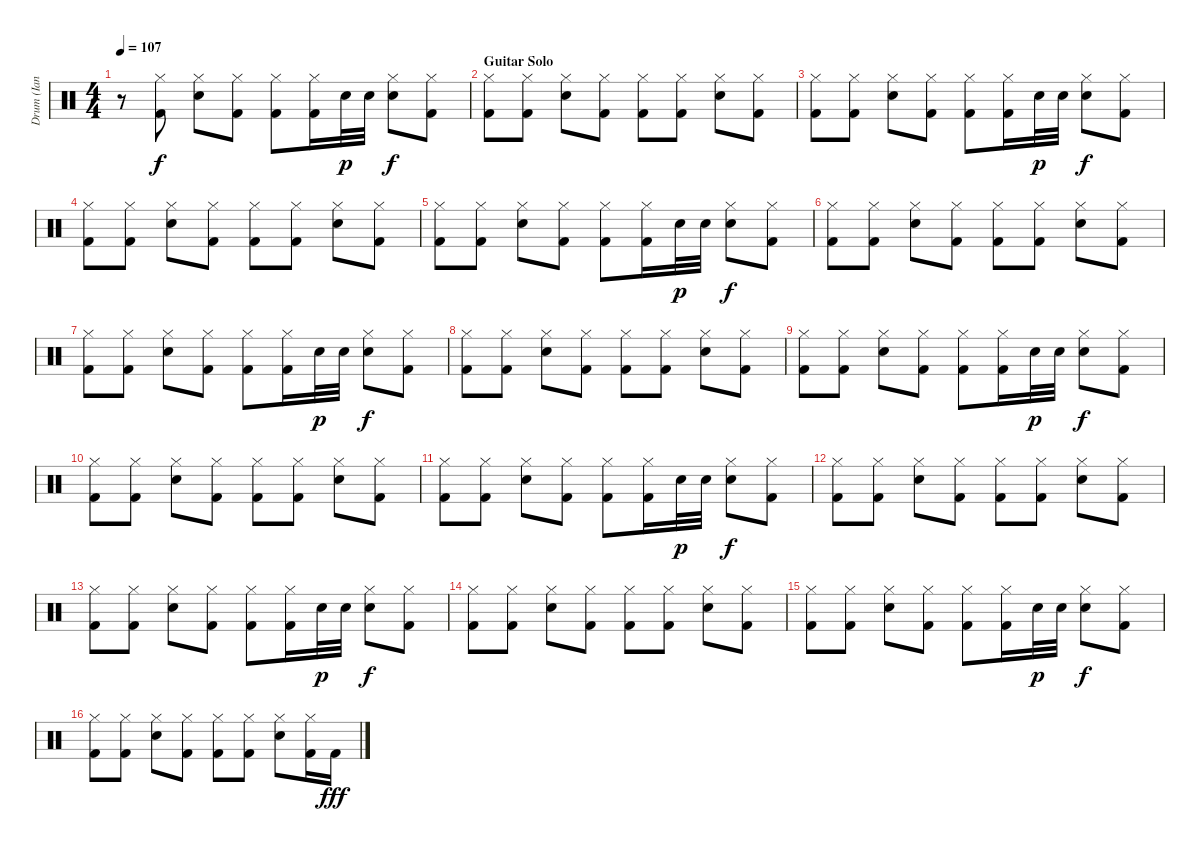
\track ("Drum (Ian Paice)" "Drum (Ian ") {instrument percussion}
\staff {score}
\articulation defaults
\ts (4 4)
\tempo 107
\clef neutral
\ks c
r.8{dy fff} ("Hi-Hat (closed)" "Kick (hit) 2").8{dy f} ("Hi-Hat (closed)" "Snare (hit) 2").8 ("Hi-Hat (closed)" "Kick (hit) 2").8 ("Hi-Hat (closed)" "Kick (hit) 2").8 ("Hi-Hat (closed)" "Kick (hit) 2").16 "Snare (hit) 2".32{dy p} "Snare (hit) 2".32 ("Hi-Hat (closed)" "Snare (hit) 2").8{dy f} ("Hi-Hat (closed)" "Kick (hit) 2").8 |
\section ("" "Guitar Solo")
("Hi-Hat (closed)" "Kick (hit) 2").8 ("Hi-Hat (closed)" "Kick (hit) 2").8 ("Hi-Hat (closed)" "Snare (hit) 2").8 ("Hi-Hat (closed)" "Kick (hit) 2").8 ("Hi-Hat (closed)" "Kick (hit) 2").8 ("Hi-Hat (closed)" "Kick (hit) 2").8 ("Hi-Hat (closed)" "Snare (hit) 2").8 ("Hi-Hat (closed)" "Kick (hit) 2").8 |
("Hi-Hat (closed)" "Kick (hit) 2").8 ("Hi-Hat (closed)" "Kick (hit) 2").8 ("Hi-Hat (closed)" "Snare (hit) 2").8 ("Hi-Hat (closed)" "Kick (hit) 2").8 ("Hi-Hat (closed)" "Kick (hit) 2").8 ("Hi-Hat (closed)" "Kick (hit) 2").16 "Snare (hit) 2".32{dy p} "Snare (hit) 2".32 ("Hi-Hat (closed)" "Snare (hit) 2").8{dy f} ("Hi-Hat (closed)" "Kick (hit) 2").8 |
("Hi-Hat (closed)" "Kick (hit) 2").8 ("Hi-Hat (closed)" "Kick (hit) 2").8 ("Hi-Hat (closed)" "Snare (hit) 2").8 ("Hi-Hat (closed)" "Kick (hit) 2").8 ("Hi-Hat (closed)" "Kick (hit) 2").8 ("Hi-Hat (closed)" "Kick (hit) 2").8 ("Hi-Hat (closed)" "Snare (hit) 2").8 ("Hi-Hat (closed)" "Kick (hit) 2").8 |
("Hi-Hat (closed)" "Kick (hit) 2").8 ("Hi-Hat (closed)" "Kick (hit) 2").8 ("Hi-Hat (closed)" "Snare (hit) 2").8 ("Hi-Hat (closed)" "Kick (hit) 2").8 ("Hi-Hat (closed)" "Kick (hit) 2").8 ("Hi-Hat (closed)" "Kick (hit) 2").16 "Snare (hit) 2".32{dy p} "Snare (hit) 2".32 ("Hi-Hat (closed)" "Snare (hit) 2").8{dy f} ("Hi-Hat (closed)" "Kick (hit) 2").8 |
("Hi-Hat (closed)" "Kick (hit) 2").8 ("Hi-Hat (closed)" "Kick (hit) 2").8 ("Hi-Hat (closed)" "Snare (hit) 2").8 ("Hi-Hat (closed)" "Kick (hit) 2").8 ("Hi-Hat (closed)" "Kick (hit) 2").8 ("Hi-Hat (closed)" "Kick (hit) 2").8 ("Hi-Hat (closed)" "Snare (hit) 2").8 ("Hi-Hat (closed)" "Kick (hit) 2").8 |
("Hi-Hat (closed)" "Kick (hit) 2").8 ("Hi-Hat (closed)" "Kick (hit) 2").8 ("Hi-Hat (closed)" "Snare (hit) 2").8 ("Hi-Hat (closed)" "Kick (hit) 2").8 ("Hi-Hat (closed)" "Kick (hit) 2").8 ("Hi-Hat (closed)" "Kick (hit) 2").16 "Snare (hit) 2".32{dy p} "Snare (hit) 2".32 ("Hi-Hat (closed)" "Snare (hit) 2").8{dy f} ("Hi-Hat (closed)" "Kick (hit) 2").8 |
("Hi-Hat (closed)" "Kick (hit) 2").8 ("Hi-Hat (closed)" "Kick (hit) 2").8 ("Hi-Hat (closed)" "Snare (hit) 2").8 ("Hi-Hat (closed)" "Kick (hit) 2").8 ("Hi-Hat (closed)" "Kick (hit) 2").8 ("Hi-Hat (closed)" "Kick (hit) 2").8 ("Hi-Hat (closed)" "Snare (hit) 2").8 ("Hi-Hat (closed)" "Kick (hit) 2").8 |
("Hi-Hat (closed)" "Kick (hit) 2").8 ("Hi-Hat (closed)" "Kick (hit) 2").8 ("Hi-Hat (closed)" "Snare (hit) 2").8 ("Hi-Hat (closed)" "Kick (hit) 2").8 ("Hi-Hat (closed)" "Kick (hit) 2").8 ("Hi-Hat (closed)" "Kick (hit) 2").16 "Snare (hit) 2".32{dy p} "Snare (hit) 2".32 ("Hi-Hat (closed)" "Snare (hit) 2").8{dy f} ("Hi-Hat (closed)" "Kick (hit) 2").8 |
("Hi-Hat (closed)" "Kick (hit) 2").8 ("Hi-Hat (closed)" "Kick (hit) 2").8 ("Hi-Hat (closed)" "Snare (hit) 2").8 ("Hi-Hat (closed)" "Kick (hit) 2").8 ("Hi-Hat (closed)" "Kick (hit) 2").8 ("Hi-Hat (closed)" "Kick (hit) 2").8 ("Hi-Hat (closed)" "Snare (hit) 2").8 ("Hi-Hat (closed)" "Kick (hit) 2").8 |
("Hi-Hat (closed)" "Kick (hit) 2").8 ("Hi-Hat (closed)" "Kick (hit) 2").8 ("Hi-Hat (closed)" "Snare (hit) 2").8 ("Hi-Hat (closed)" "Kick (hit) 2").8 ("Hi-Hat (closed)" "Kick (hit) 2").8 ("Hi-Hat (closed)" "Kick (hit) 2").16 "Snare (hit) 2".32{dy p} "Snare (hit) 2".32 ("Hi-Hat (closed)" "Snare (hit) 2").8{dy f} ("Hi-Hat (closed)" "Kick (hit) 2").8 |
("Hi-Hat (closed)" "Kick (hit) 2").8 ("Hi-Hat (closed)" "Kick (hit) 2").8 ("Hi-Hat (closed)" "Snare (hit) 2").8 ("Hi-Hat (closed)" "Kick (hit) 2").8 ("Hi-Hat (closed)" "Kick (hit) 2").8 ("Hi-Hat (closed)" "Kick (hit) 2").8 ("Hi-Hat (closed)" "Snare (hit) 2").8 ("Hi-Hat (closed)" "Kick (hit) 2").8 |
("Hi-Hat (closed)" "Kick (hit) 2").8 ("Hi-Hat (closed)" "Kick (hit) 2").8 ("Hi-Hat (closed)" "Snare (hit) 2").8 ("Hi-Hat (closed)" "Kick (hit) 2").8 ("Hi-Hat (closed)" "Kick (hit) 2").8 ("Hi-Hat (closed)" "Kick (hit) 2").16 "Snare (hit) 2".32{dy p} "Snare (hit) 2".32 ("Hi-Hat (closed)" "Snare (hit) 2").8{dy f} ("Hi-Hat (closed)" "Kick (hit) 2").8 |
("Hi-Hat (closed)" "Kick (hit) 2").8 ("Hi-Hat (closed)" "Kick (hit) 2").8 ("Hi-Hat (closed)" "Snare (hit) 2").8 ("Hi-Hat (closed)" "Kick (hit) 2").8 ("Hi-Hat (closed)" "Kick (hit) 2").8 ("Hi-Hat (closed)" "Kick (hit) 2").8 ("Hi-Hat (closed)" "Snare (hit) 2").8 ("Hi-Hat (closed)" "Kick (hit) 2").8 |
("Hi-Hat (closed)" "Kick (hit) 2").8 ("Hi-Hat (closed)" "Kick (hit) 2").8 ("Hi-Hat (closed)" "Snare (hit) 2").8 ("Hi-Hat (closed)" "Kick (hit) 2").8 ("Hi-Hat (closed)" "Kick (hit) 2").8 ("Hi-Hat (closed)" "Kick (hit) 2").16 "Snare (hit) 2".32{dy p} "Snare (hit) 2".32 ("Hi-Hat (closed)" "Snare (hit) 2").8{dy f} ("Hi-Hat (closed)" "Kick (hit) 2").8 |
("Hi-Hat (closed)" "Kick (hit) 2").8 ("Hi-Hat (closed)" "Kick (hit) 2").8 ("Hi-Hat (closed)" "Snare (hit) 2").8 ("Hi-Hat (closed)" "Kick (hit) 2").8 ("Hi-Hat (closed)" "Kick (hit) 2").8 ("Hi-Hat (closed)" "Kick (hit) 2").8 ("Hi-Hat (closed)" "Snare (hit) 2").8 ("Hi-Hat (closed)" "Kick (hit) 2").16 "Kick (hit) 2".16{dy fff}
